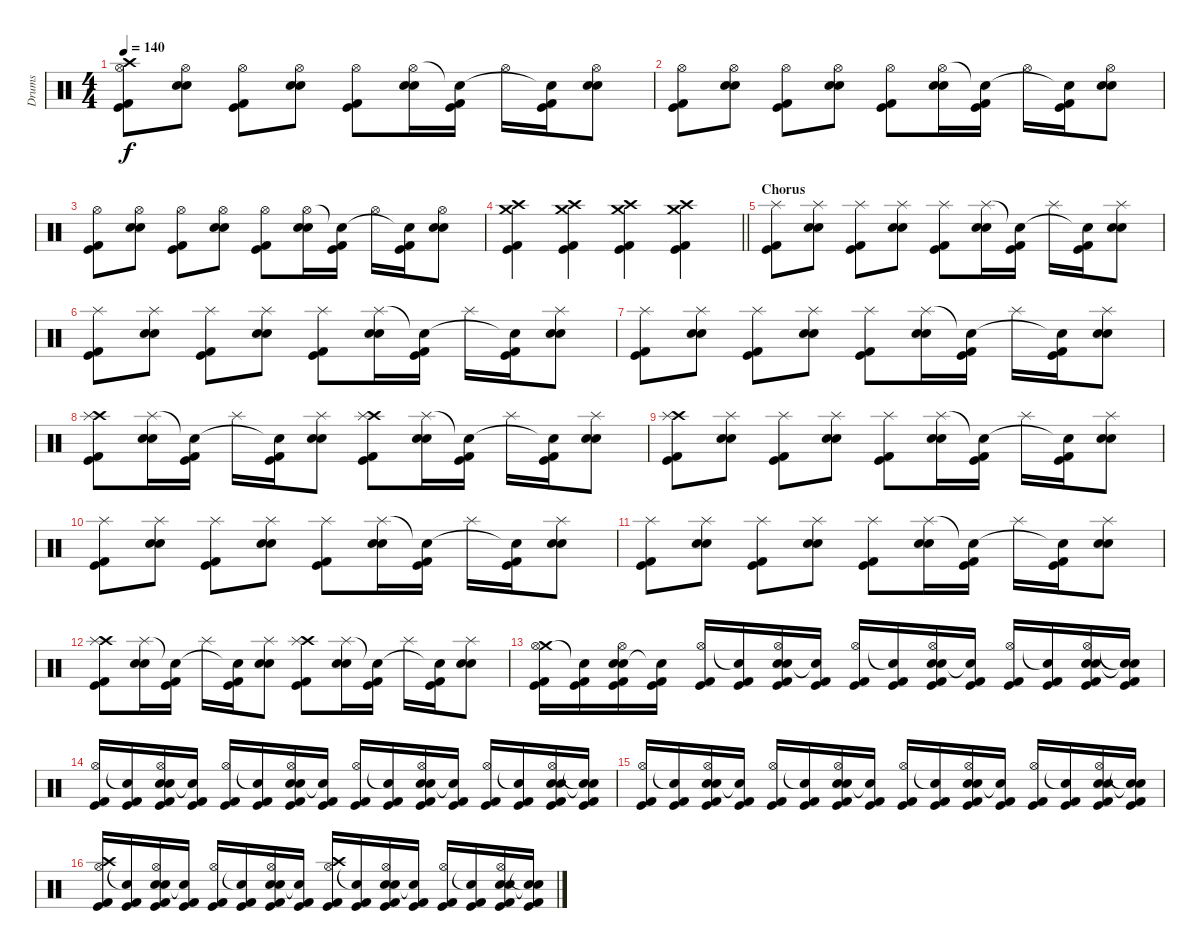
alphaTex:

\track ("Drums" "Drums") {instrument percussion}
\staff {score}
\articulation defaults
\ts (4 4)
\tempo 140
\clef neutral
\ks c
("Kick (hit) 2" "Crash high (hit)" "Hi-Hat (open)" "Kick (hit)").8{dy f} ("Electric Snare (hit)" "Hi-Hat (open)" "Snare (hit) 2").8 ("Kick (hit) 2" "Hi-Hat (open)" "Kick (hit)").8 ("Electric Snare (hit)" "Hi-Hat (open)" "Snare (hit) 2").8 ("Kick (hit) 2" "Hi-Hat (open)" "Kick (hit)").8 ("Electric Snare (hit)" "Hi-Hat (open)" "Snare (hit) 2").16 ("Kick (hit) 2" "Snare (hit)"{t} "Kick (hit)").16 "Hi-Hat (open)".16 ("Kick (hit) 2" "Snare (hit)"{t} "Kick (hit)").16 ("Electric Snare (hit)" "Hi-Hat (open)" "Snare (hit) 2").8 |
("Kick (hit) 2" "Hi-Hat (open)" "Kick (hit)").8 ("Electric Snare (hit)" "Hi-Hat (open)" "Snare (hit) 2").8 ("Kick (hit) 2" "Hi-Hat (open)" "Kick (hit)").8 ("Electric Snare (hit)" "Hi-Hat (open)" "Snare (hit) 2").8 ("Kick (hit) 2" "Hi-Hat (open)" "Kick (hit)").8 ("Electric Snare (hit)" "Hi-Hat (open)" "Snare (hit) 2").16 ("Kick (hit) 2" "Snare (hit)"{t} "Kick (hit)").16 "Hi-Hat (open)".16 ("Kick (hit) 2" "Snare (hit)"{t} "Kick (hit)").16 ("Electric Snare (hit)" "Hi-Hat (open)" "Snare (hit) 2").8 |
("Kick (hit) 2" "Hi-Hat (open)" "Kick (hit)").8 ("Electric Snare (hit)" "Hi-Hat (open)" "Snare (hit) 2").8 ("Kick (hit) 2" "Hi-Hat (open)" "Kick (hit)").8 ("Electric Snare (hit)" "Hi-Hat (open)" "Snare (hit) 2").8 ("Kick (hit) 2" "Hi-Hat (open)" "Kick (hit)").8 ("Electric Snare (hit)" "Hi-Hat (open)" "Snare (hit) 2").16 ("Kick (hit) 2" "Snare (hit)"{t} "Kick (hit)").16 "Hi-Hat (open)".16 ("Kick (hit) 2" "Snare (hit)"{t} "Kick (hit)").16 ("Electric Snare (hit)" "Hi-Hat (open)" "Snare (hit) 2").8 |
\barLineRight lightlight
("Kick (hit) 2" "Crash medium (hit)" "Crash high (hit)" "Kick (hit)").4 ("Kick (hit) 2" "Crash medium (hit)" "Crash high (hit)" "Kick (hit)").4 ("Kick (hit) 2" "Crash medium (hit)" "Crash high (hit)" "Kick (hit)").4 ("Kick (hit) 2" "Crash medium (hit)" "Crash high (hit)" "Kick (hit)").4 |
\section ("" "Chorus")
("Kick (hit) 2" "Splash (hit)" "Kick (hit)").8 ("Electric Snare (hit)" "Splash (hit)" "Snare (hit) 2").8 ("Kick (hit) 2" "Splash (hit)" "Kick (hit)").8 ("Electric Snare (hit)" "Splash (hit)" "Snare (hit) 2").8 ("Kick (hit) 2" "Splash (hit)" "Kick (hit)").8 ("Electric Snare (hit)" "Splash (hit)" "Snare (hit) 2").16 ("Kick (hit) 2" "Snare (hit)"{t} "Kick (hit)").16 "Splash (hit)".16 ("Kick (hit) 2" "Snare (hit)"{t} "Kick (hit)").16 ("Electric Snare (hit)" "Splash (hit)" "Snare (hit) 2").8 |
("Kick (hit) 2" "Splash (hit)" "Kick (hit)").8 ("Electric Snare (hit)" "Splash (hit)" "Snare (hit) 2").8 ("Kick (hit) 2" "Splash (hit)" "Kick (hit)").8 ("Electric Snare (hit)" "Splash (hit)" "Snare (hit) 2").8 ("Kick (hit) 2" "Splash (hit)" "Kick (hit)").8 ("Electric Snare (hit)" "Splash (hit)" "Snare (hit) 2").16 ("Kick (hit) 2" "Snare (hit)"{t} "Kick (hit)").16 "Splash (hit)".16 ("Kick (hit) 2" "Snare (hit)"{t} "Kick (hit)").16 ("Electric Snare (hit)" "Splash (hit)" "Snare (hit) 2").8 |
("Kick (hit) 2" "Splash (hit)" "Kick (hit)").8 ("Electric Snare (hit)" "Splash (hit)" "Snare (hit) 2").8 ("Kick (hit) 2" "Splash (hit)" "Kick (hit)").8 ("Electric Snare (hit)" "Splash (hit)" "Snare (hit) 2").8 ("Kick (hit) 2" "Splash (hit)" "Kick (hit)").8 ("Electric Snare (hit)" "Splash (hit)" "Snare (hit) 2").16 ("Kick (hit) 2" "Snare (hit)"{t} "Kick (hit)").16 "Splash (hit)".16 ("Kick (hit) 2" "Snare (hit)"{t} "Kick (hit)").16 ("Electric Snare (hit)" "Splash (hit)" "Snare (hit) 2").8 |
("Kick (hit) 2" "Crash high (hit)" "Splash (hit)" "Kick (hit)").8 ("Electric Snare (hit)" "Splash (hit)" "Snare (hit) 2").16 ("Kick (hit) 2" "Snare (hit)"{t} "Kick (hit)").16 "Splash (hit)".16 ("Kick (hit) 2" "Snare (hit)"{t} "Kick (hit)").16 ("Electric Snare (hit)" "Splash (hit)" "Snare (hit) 2").8 ("Kick (hit) 2" "Crash high (hit)" "Splash (hit)" "Kick (hit)").8 ("Electric Snare (hit)" "Splash (hit)" "Snare (hit) 2").16 ("Kick (hit) 2" "Snare (hit)"{t} "Kick (hit)").16 "Splash (hit)".16 ("Kick (hit) 2" "Snare (hit)"{t} "Kick (hit)").16 ("Electric Snare (hit)" "Splash (hit)" "Snare (hit) 2").8 |
("Kick (hit) 2" "Crash high (hit)" "Splash (hit)" "Kick (hit)").8 ("Electric Snare (hit)" "Splash (hit)" "Snare (hit) 2").8 ("Kick (hit) 2" "Splash (hit)" "Kick (hit)").8 ("Electric Snare (hit)" "Splash (hit)" "Snare (hit) 2").8 ("Kick (hit) 2" "Splash (hit)" "Kick (hit)").8 ("Electric Snare (hit)" "Splash (hit)" "Snare (hit) 2").16 ("Kick (hit) 2" "Snare (hit)"{t} "Kick (hit)").16 "Splash (hit)".16 ("Kick (hit) 2" "Snare (hit)"{t} "Kick (hit)").16 ("Electric Snare (hit)" "Splash (hit)" "Snare (hit) 2").8 |
("Kick (hit) 2" "Splash (hit)" "Kick (hit)").8 ("Electric Snare (hit)" "Splash (hit)" "Snare (hit) 2").8 ("Kick (hit) 2" "Splash (hit)" "Kick (hit)").8 ("Electric Snare (hit)" "Splash (hit)" "Snare (hit) 2").8 ("Kick (hit) 2" "Splash (hit)" "Kick (hit)").8 ("Electric Snare (hit)" "Splash (hit)" "Snare (hit) 2").16 ("Kick (hit) 2" "Snare (hit)"{t} "Kick (hit)").16 "Splash (hit)".16 ("Kick (hit) 2" "Snare (hit)"{t} "Kick (hit)").16 ("Electric Snare (hit)" "Splash (hit)" "Snare (hit) 2").8 |
("Kick (hit) 2" "Splash (hit)" "Kick (hit)").8 ("Electric Snare (hit)" "Splash (hit)" "Snare (hit) 2").8 ("Kick (hit) 2" "Splash (hit)" "Kick (hit)").8 ("Electric Snare (hit)" "Splash (hit)" "Snare (hit) 2").8 ("Kick (hit) 2" "Splash (hit)" "Kick (hit)").8 ("Electric Snare (hit)" "Splash (hit)" "Snare (hit) 2").16 ("Kick (hit) 2" "Snare (hit)"{t} "Kick (hit)").16 "Splash (hit)".16 ("Kick (hit) 2" "Snare (hit)"{t} "Kick (hit)").16 ("Electric Snare (hit)" "Splash (hit)" "Snare (hit) 2").8 |
("Kick (hit) 2" "Crash high (hit)" "Splash (hit)" "Kick (hit)").8 ("Electric Snare (hit)" "Splash (hit)" "Snare (hit) 2").16 ("Kick (hit) 2" "Snare (hit)"{t} "Kick (hit)").16 "Splash (hit)".16 ("Kick (hit) 2" "Snare (hit)"{t} "Kick (hit)").16 ("Electric Snare (hit)" "Splash (hit)" "Snare (hit) 2").8 ("Kick (hit) 2" "Crash high (hit)" "Splash (hit)" "Kick (hit)").8 ("Electric Snare (hit)" "Splash (hit)" "Snare (hit) 2").16 ("Kick (hit) 2" "Snare (hit)"{t} "Kick (hit)").16 "Splash (hit)".16 ("Kick (hit) 2" "Snare (hit)"{t} "Kick (hit)").16 ("Electric Snare (hit)" "Splash (hit)" "Snare (hit) 2").8 |
("Kick (hit) 2" "Crash medium (hit)" "Hi-Hat (open)" "Kick (hit)").16 ("Kick (hit) 2" "Snare (hit)"{t} "Kick (hit)").16 ("Kick (hit) 2" "Electric Snare (hit)" "Hi-Hat (open)" "Snare (hit) 2" "Kick (hit)").16 ("Kick (hit) 2" "Snare (hit)"{t} "Kick (hit)").16 ("Kick (hit) 2" "Hi-Hat (open)" "Kick (hit)").16 ("Kick (hit) 2" "Snare (hit)"{t} "Kick (hit)").16 ("Kick (hit) 2" "Electric Snare (hit)" "Hi-Hat (open)" "Snare (hit) 2" "Kick (hit)").16 ("Kick (hit) 2" "Snare (hit)"{t} "Kick (hit)").16 ("Kick (hit) 2" "Hi-Hat (open)" "Kick (hit)").16 ("Kick (hit) 2" "Snare (hit)"{t} "Kick (hit)").16 ("Kick (hit) 2" "Electric Snare (hit)" "Hi-Hat (open)" "Snare (hit) 2" "Kick (hit)").16 ("Kick (hit) 2" "Snare (hit)"{t} "Kick (hit)").16 ("Kick (hit) 2" "Hi-Hat (open)" "Kick (hit)").16 ("Kick (hit) 2" "Snare (hit)"{t} "Kick (hit)").16 ("Kick (hit) 2" "Electric Snare (hit)" "Hi-Hat (open)" "Snare (hit) 2" "Kick (hit)").16 ("Kick (hit) 2" "Snare (hit)"{t} "Snare (hit)"{t} "Kick (hit)").16 |
("Kick (hit) 2" "Hi-Hat (open)" "Kick (hit)").16 ("Kick (hit) 2" "Snare (hit)"{t} "Kick (hit)").16 ("Kick (hit) 2" "Electric Snare (hit)" "Hi-Hat (open)" "Snare (hit) 2" "Kick (hit)").16 ("Kick (hit) 2" "Snare (hit)"{t} "Kick (hit)").16 ("Kick (hit) 2" "Hi-Hat (open)" "Kick (hit)").16 ("Kick (hit) 2" "Snare (hit)"{t} "Kick (hit)").16 ("Kick (hit) 2" "Electric Snare (hit)" "Hi-Hat (open)" "Snare (hit) 2" "Kick (hit)").16 ("Kick (hit) 2" "Snare (hit)"{t} "Kick (hit)").16 ("Kick (hit) 2" "Hi-Hat (open)" "Kick (hit)").16 ("Kick (hit) 2" "Snare (hit)"{t} "Kick (hit)").16 ("Kick (hit) 2" "Electric Snare (hit)" "Hi-Hat (open)" "Snare (hit) 2" "Kick (hit)").16 ("Kick (hit) 2" "Snare (hit)"{t} "Kick (hit)").16 ("Kick (hit) 2" "Hi-Hat (open)" "Kick (hit)").16 ("Kick (hit) 2" "Snare (hit)"{t} "Kick (hit)").16 ("Kick (hit) 2" "Electric Snare (hit)" "Hi-Hat (open)" "Snare (hit) 2" "Kick (hit)").16 ("Kick (hit) 2" "Snare (hit)"{t} "Snare (hit)"{t} "Kick (hit)").16 |
("Kick (hit) 2" "Hi-Hat (open)" "Kick (hit)").16 ("Kick (hit) 2" "Snare (hit)"{t} "Kick (hit)").16 ("Kick (hit) 2" "Electric Snare (hit)" "Hi-Hat (open)" "Snare (hit) 2" "Kick (hit)").16 ("Kick (hit) 2" "Snare (hit)"{t} "Kick (hit)").16 ("Kick (hit) 2" "Hi-Hat (open)" "Kick (hit)").16 ("Kick (hit) 2" "Snare (hit)"{t} "Kick (hit)").16 ("Kick (hit) 2" "Electric Snare (hit)" "Hi-Hat (open)" "Snare (hit) 2" "Kick (hit)").16 ("Kick (hit) 2" "Snare (hit)"{t} "Kick (hit)").16 ("Kick (hit) 2" "Hi-Hat (open)" "Kick (hit)").16 ("Kick (hit) 2" "Snare (hit)"{t} "Kick (hit)").16 ("Kick (hit) 2" "Electric Snare (hit)" "Hi-Hat (open)" "Snare (hit) 2" "Kick (hit)").16 ("Kick (hit) 2" "Snare (hit)"{t} "Kick (hit)").16 ("Kick (hit) 2" "Hi-Hat (open)" "Kick (hit)").16 ("Kick (hit) 2" "Snare (hit)"{t} "Kick (hit)").16 ("Kick (hit) 2" "Electric Snare (hit)" "Hi-Hat (open)" "Snare (hit) 2" "Kick (hit)").16 ("Kick (hit) 2" "Snare (hit)"{t} "Snare (hit)"{t} "Kick (hit)").16 |
("Kick (hit) 2" "Crash high (hit)" "Hi-Hat (open)" "Kick (hit)").16 ("Kick (hit) 2" "Snare (hit)"{t} "Kick (hit)").16 ("Kick (hit) 2" "Electric Snare (hit)" "Hi-Hat (open)" "Snare (hit) 2" "Kick (hit)").16 ("Kick (hit) 2" "Snare (hit)"{t} "Kick (hit)").16 ("Kick (hit) 2" "Hi-Hat (open)" "Kick (hit)").16 ("Kick (hit) 2" "Snare (hit)"{t} "Kick (hit)").16 ("Kick (hit) 2" "Electric Snare (hit)" "Hi-Hat (open)" "Snare (hit) 2" "Kick (hit)").16 ("Kick (hit) 2" "Snare (hit)"{t} "Kick (hit)").16 ("Kick (hit) 2" "Crash high (hit)" "Hi-Hat (open)" "Kick (hit)").16 ("Kick (hit) 2" "Snare (hit)"{t} "Kick (hit)").16 ("Kick (hit) 2" "Electric Snare (hit)" "Hi-Hat (open)" "Snare (hit) 2" "Kick (hit)").16 ("Kick (hit) 2" "Snare (hit)"{t} "Kick (hit)").16 ("Kick (hit) 2" "Hi-Hat (open)" "Kick (hit)").16 ("Kick (hit) 2" "Snare (hit)"{t} "Kick (hit)").16 ("Kick (hit) 2" "Electric Snare (hit)" "Hi-Hat (open)" "Snare (hit) 2" "Kick (hit)").16 ("Kick (hit) 2" "Snare (hit)"{t} "Snare (hit)"{t} "Kick (hit)").16
